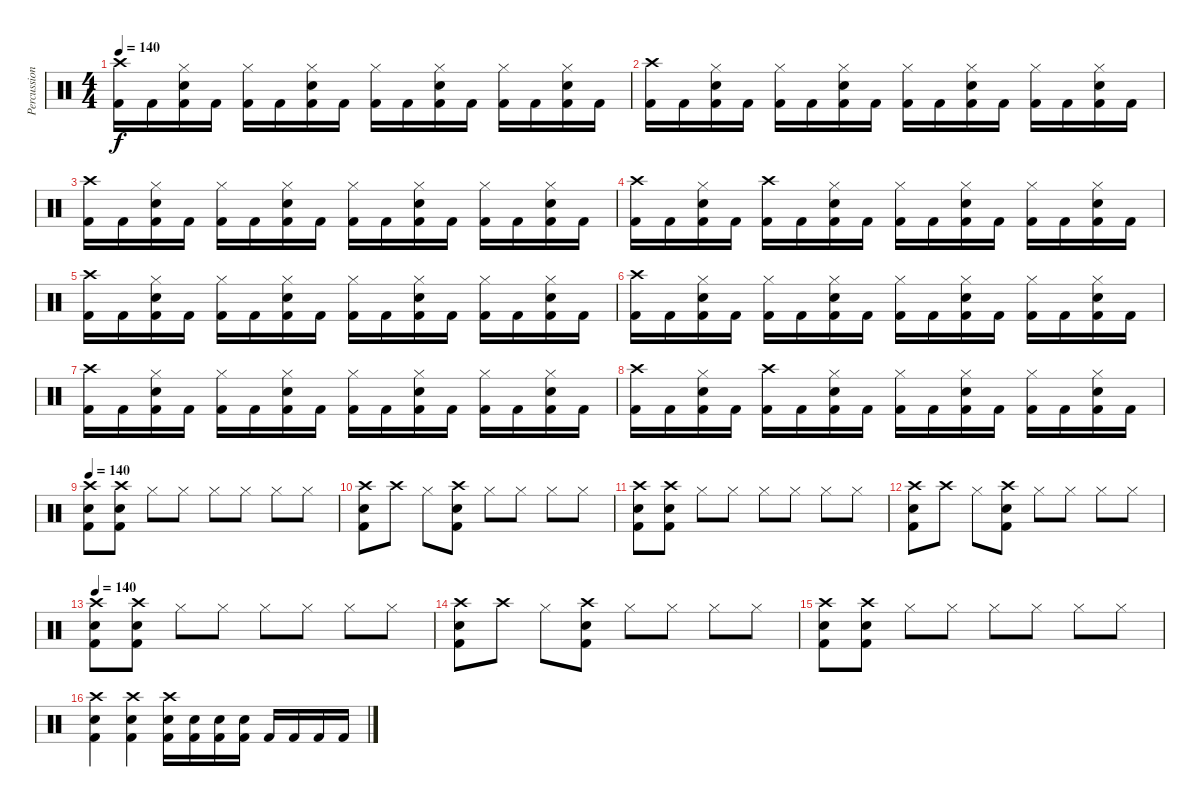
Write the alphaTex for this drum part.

\track ("Percussion" "Percussion") {instrument percussion}
\staff {score}
\articulation defaults
\ts (4 4)
\tempo 140
\clef neutral
\ks aminor
("Crash high (hit)" "Kick (hit) 2").16{dy f} "Kick (hit) 2".16 ("Hi-Hat (closed)" "Snare (hit) 2" "Kick (hit) 2").16 "Kick (hit) 2".16 ("Hi-Hat (closed)" "Kick (hit) 2").16 "Kick (hit) 2".16 ("Hi-Hat (closed)" "Snare (hit) 2" "Kick (hit) 2").16 "Kick (hit) 2".16 ("Hi-Hat (closed)" "Kick (hit) 2").16 "Kick (hit) 2".16 ("Hi-Hat (closed)" "Snare (hit) 2" "Kick (hit) 2").16 "Kick (hit) 2".16 ("Hi-Hat (closed)" "Kick (hit) 2").16 "Kick (hit) 2".16 ("Hi-Hat (closed)" "Snare (hit) 2" "Kick (hit) 2").16 "Kick (hit) 2".16 |
("Crash high (hit)" "Kick (hit) 2").16 "Kick (hit) 2".16 ("Hi-Hat (closed)" "Snare (hit) 2" "Kick (hit) 2").16 "Kick (hit) 2".16 ("Hi-Hat (closed)" "Kick (hit) 2").16 "Kick (hit) 2".16 ("Hi-Hat (closed)" "Snare (hit) 2" "Kick (hit) 2").16 "Kick (hit) 2".16 ("Hi-Hat (closed)" "Kick (hit) 2").16 "Kick (hit) 2".16 ("Hi-Hat (closed)" "Snare (hit) 2" "Kick (hit) 2").16 "Kick (hit) 2".16 ("Hi-Hat (closed)" "Kick (hit) 2").16 "Kick (hit) 2".16 ("Hi-Hat (closed)" "Snare (hit) 2" "Kick (hit) 2").16 "Kick (hit) 2".16 |
("Crash high (hit)" "Kick (hit) 2").16 "Kick (hit) 2".16 ("Hi-Hat (closed)" "Snare (hit) 2" "Kick (hit) 2").16 "Kick (hit) 2".16 ("Hi-Hat (closed)" "Kick (hit) 2").16 "Kick (hit) 2".16 ("Hi-Hat (closed)" "Snare (hit) 2" "Kick (hit) 2").16 "Kick (hit) 2".16 ("Hi-Hat (closed)" "Kick (hit) 2").16 "Kick (hit) 2".16 ("Hi-Hat (closed)" "Snare (hit) 2" "Kick (hit) 2").16 "Kick (hit) 2".16 ("Hi-Hat (closed)" "Kick (hit) 2").16 "Kick (hit) 2".16 ("Hi-Hat (closed)" "Snare (hit) 2" "Kick (hit) 2").16 "Kick (hit) 2".16 |
("Crash high (hit)" "Kick (hit) 2").16 "Kick (hit) 2".16 ("Hi-Hat (closed)" "Snare (hit) 2" "Kick (hit) 2").16 "Kick (hit) 2".16 ("Crash high (hit)" "Kick (hit) 2").16 "Kick (hit) 2".16 ("Hi-Hat (closed)" "Snare (hit) 2" "Kick (hit) 2").16 "Kick (hit) 2".16 ("Hi-Hat (closed)" "Kick (hit) 2").16 "Kick (hit) 2".16 ("Hi-Hat (closed)" "Snare (hit) 2" "Kick (hit) 2").16 "Kick (hit) 2".16 ("Hi-Hat (closed)" "Kick (hit) 2").16 "Kick (hit) 2".16 ("Hi-Hat (closed)" "Snare (hit) 2" "Kick (hit) 2").16 "Kick (hit) 2".16 |
("Crash high (hit)" "Kick (hit) 2").16 "Kick (hit) 2".16 ("Hi-Hat (closed)" "Snare (hit) 2" "Kick (hit) 2").16 "Kick (hit) 2".16 ("Hi-Hat (closed)" "Kick (hit) 2").16 "Kick (hit) 2".16 ("Hi-Hat (closed)" "Snare (hit) 2" "Kick (hit) 2").16 "Kick (hit) 2".16 ("Hi-Hat (closed)" "Kick (hit) 2").16 "Kick (hit) 2".16 ("Hi-Hat (closed)" "Snare (hit) 2" "Kick (hit) 2").16 "Kick (hit) 2".16 ("Hi-Hat (closed)" "Kick (hit) 2").16 "Kick (hit) 2".16 ("Hi-Hat (closed)" "Snare (hit) 2" "Kick (hit) 2").16 "Kick (hit) 2".16 |
("Crash high (hit)" "Kick (hit) 2").16 "Kick (hit) 2".16 ("Hi-Hat (closed)" "Snare (hit) 2" "Kick (hit) 2").16 "Kick (hit) 2".16 ("Hi-Hat (closed)" "Kick (hit) 2").16 "Kick (hit) 2".16 ("Hi-Hat (closed)" "Snare (hit) 2" "Kick (hit) 2").16 "Kick (hit) 2".16 ("Hi-Hat (closed)" "Kick (hit) 2").16 "Kick (hit) 2".16 ("Hi-Hat (closed)" "Snare (hit) 2" "Kick (hit) 2").16 "Kick (hit) 2".16 ("Hi-Hat (closed)" "Kick (hit) 2").16 "Kick (hit) 2".16 ("Hi-Hat (closed)" "Snare (hit) 2" "Kick (hit) 2").16 "Kick (hit) 2".16 |
("Crash high (hit)" "Kick (hit) 2").16 "Kick (hit) 2".16 ("Hi-Hat (closed)" "Snare (hit) 2" "Kick (hit) 2").16 "Kick (hit) 2".16 ("Hi-Hat (closed)" "Kick (hit) 2").16 "Kick (hit) 2".16 ("Hi-Hat (closed)" "Snare (hit) 2" "Kick (hit) 2").16 "Kick (hit) 2".16 ("Hi-Hat (closed)" "Kick (hit) 2").16 "Kick (hit) 2".16 ("Hi-Hat (closed)" "Snare (hit) 2" "Kick (hit) 2").16 "Kick (hit) 2".16 ("Hi-Hat (closed)" "Kick (hit) 2").16 "Kick (hit) 2".16 ("Hi-Hat (closed)" "Snare (hit) 2" "Kick (hit) 2").16 "Kick (hit) 2".16 |
("Crash high (hit)" "Kick (hit) 2").16 "Kick (hit) 2".16 ("Hi-Hat (closed)" "Snare (hit) 2" "Kick (hit) 2").16 "Kick (hit) 2".16 ("Crash high (hit)" "Kick (hit) 2").16 "Kick (hit) 2".16 ("Hi-Hat (closed)" "Snare (hit) 2" "Kick (hit) 2").16 "Kick (hit) 2".16 ("Hi-Hat (closed)" "Kick (hit) 2").16 "Kick (hit) 2".16 ("Hi-Hat (closed)" "Snare (hit) 2" "Kick (hit) 2").16 "Kick (hit) 2".16 ("Hi-Hat (closed)" "Kick (hit) 2").16 "Kick (hit) 2".16 ("Hi-Hat (closed)" "Snare (hit) 2" "Kick (hit) 2").16 "Kick (hit) 2".16 |
\tempo 140
("Crash high (hit)" "Snare (hit) 2" "Kick (hit) 2").8 ("Crash high (hit)" "Snare (hit) 2" "Kick (hit) 2").8 "Hi-Hat (closed)".8 "Hi-Hat (closed)".8 "Hi-Hat (closed)".8 "Hi-Hat (closed)".8 "Hi-Hat (closed)".8 "Hi-Hat (closed)".8 |
("Crash high (hit)" "Snare (hit) 2" "Kick (hit) 2").8 "Crash high (hit)".8 "Hi-Hat (closed)".8 ("Crash high (hit)" "Snare (hit) 2" "Kick (hit) 2").8 "Hi-Hat (closed)".8 "Hi-Hat (closed)".8 "Hi-Hat (closed)".8 "Hi-Hat (closed)".8 |
("Crash high (hit)" "Snare (hit) 2" "Kick (hit) 2").8 ("Crash high (hit)" "Snare (hit) 2" "Kick (hit) 2").8 "Hi-Hat (closed)".8 "Hi-Hat (closed)".8 "Hi-Hat (closed)".8 "Hi-Hat (closed)".8 "Hi-Hat (closed)".8 "Hi-Hat (closed)".8 |
("Crash high (hit)" "Snare (hit) 2" "Kick (hit) 2").8 "Crash high (hit)".8 "Hi-Hat (closed)".8 ("Crash high (hit)" "Snare (hit) 2" "Kick (hit) 2").8 "Hi-Hat (closed)".8 "Hi-Hat (closed)".8 "Hi-Hat (closed)".8 "Hi-Hat (closed)".8 |
\tempo 140
("Crash high (hit)" "Snare (hit) 2" "Kick (hit) 2").8 ("Crash high (hit)" "Snare (hit) 2" "Kick (hit) 2").8 "Hi-Hat (closed)".8 "Hi-Hat (closed)".8 "Hi-Hat (closed)".8 "Hi-Hat (closed)".8 "Hi-Hat (closed)".8 "Hi-Hat (closed)".8 |
("Crash high (hit)" "Snare (hit) 2" "Kick (hit) 2").8 "Crash high (hit)".8 "Hi-Hat (closed)".8 ("Crash high (hit)" "Snare (hit) 2" "Kick (hit) 2").8 "Hi-Hat (closed)".8 "Hi-Hat (closed)".8 "Hi-Hat (closed)".8 "Hi-Hat (closed)".8 |
("Crash high (hit)" "Snare (hit) 2" "Kick (hit) 2").8 ("Crash high (hit)" "Snare (hit) 2" "Kick (hit) 2").8 "Hi-Hat (closed)".8 "Hi-Hat (closed)".8 "Hi-Hat (closed)".8 "Hi-Hat (closed)".8 "Hi-Hat (closed)".8 "Hi-Hat (closed)".8 |
("Crash high (hit)" "Snare (hit) 2" "Kick (hit) 2").4 ("Crash high (hit)" "Snare (hit) 2" "Kick (hit) 2").4 ("Crash high (hit)" "Snare (hit) 2" "Kick (hit) 2").16 ("Snare (hit) 2" "Kick (hit) 2").16 ("Snare (hit) 2" "Kick (hit) 2").16 ("Snare (hit) 2" "Kick (hit) 2").16 "Kick (hit) 2".16 "Kick (hit) 2".16 "Kick (hit) 2".16 "Kick (hit) 2".16
